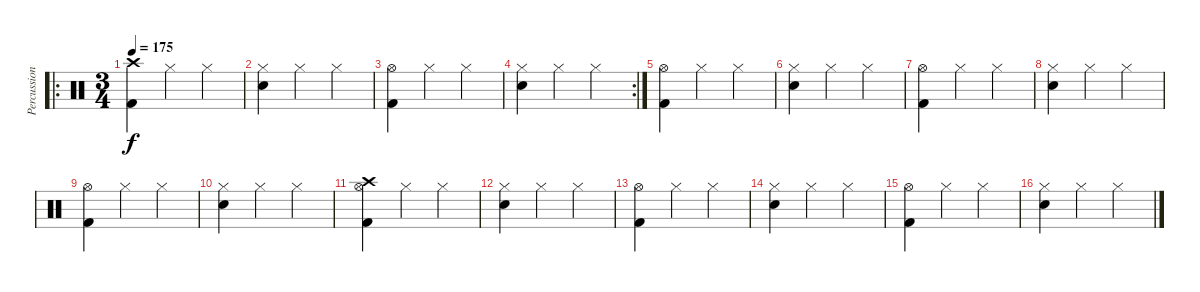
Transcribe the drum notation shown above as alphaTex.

\track ("Percussion" "Percussion") {instrument percussion}
\staff {score}
\articulation defaults
\ro
\ts (3 4)
\tempo 175
\clef neutral
\ks c
("Crash high (hit)" "Kick (hit) 2").4{dy f} "Hi-Hat (closed)".4 "Hi-Hat (closed)".4 |
("Electric Snare (hit)" "Hi-Hat (closed)").4 "Hi-Hat (closed)".4 "Hi-Hat (closed)".4 |
("Hi-Hat (open)" "Kick (hit) 2").4 "Hi-Hat (closed)".4 "Hi-Hat (closed)".4 |
\rc 2
("Electric Snare (hit)" "Hi-Hat (closed)").4 "Hi-Hat (closed)".4 "Hi-Hat (closed)".4 |
("Hi-Hat (open)" "Kick (hit) 2").4 "Hi-Hat (closed)".4 "Hi-Hat (closed)".4 |
("Electric Snare (hit)" "Hi-Hat (closed)").4 "Hi-Hat (closed)".4 "Hi-Hat (closed)".4 |
("Hi-Hat (open)" "Kick (hit) 2").4 "Hi-Hat (closed)".4 "Hi-Hat (closed)".4 |
("Electric Snare (hit)" "Hi-Hat (closed)").4 "Hi-Hat (closed)".4 "Hi-Hat (closed)".4 |
("Hi-Hat (open)" "Kick (hit) 2").4 "Hi-Hat (closed)".4 "Hi-Hat (closed)".4 |
("Electric Snare (hit)" "Hi-Hat (closed)").4 "Hi-Hat (closed)".4 "Hi-Hat (closed)".4 |
("Crash high (hit)" "Hi-Hat (open)" "Kick (hit) 2").4 "Hi-Hat (closed)".4 "Hi-Hat (closed)".4 |
("Electric Snare (hit)" "Hi-Hat (closed)").4 "Hi-Hat (closed)".4 "Hi-Hat (closed)".4 |
("Hi-Hat (open)" "Kick (hit) 2").4 "Hi-Hat (closed)".4 "Hi-Hat (closed)".4 |
("Electric Snare (hit)" "Hi-Hat (closed)").4 "Hi-Hat (closed)".4 "Hi-Hat (closed)".4 |
("Hi-Hat (open)" "Kick (hit) 2").4 "Hi-Hat (closed)".4 "Hi-Hat (closed)".4 |
("Electric Snare (hit)" "Hi-Hat (closed)").4 "Hi-Hat (closed)".4 "Hi-Hat (closed)".4
